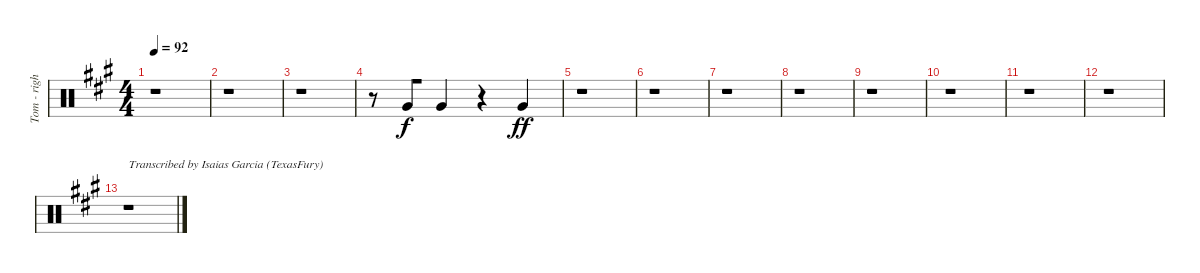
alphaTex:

\track ("Tom - right" "Tom - righ") {instrument percussion}
\staff {score}
\articulation defaults
\ts (4 4)
\tempo 92
\clef neutral
\ks f#minor
r.1{dy f} |
r.1 |
r.1 |
r.8 "Very Low Tom (hit)".8{beam merge} "Very Low Tom (hit)".4 r.4{beam merge} "Very Low Tom (hit)".4{dy ff} |
r.1 |
r.1 |
r.1 |
r.1 |
r.1 |
r.1 |
r.1 |
r.1 |
r.1{txt "Transcribed by Isaias Garcia (TexasFury)"}
